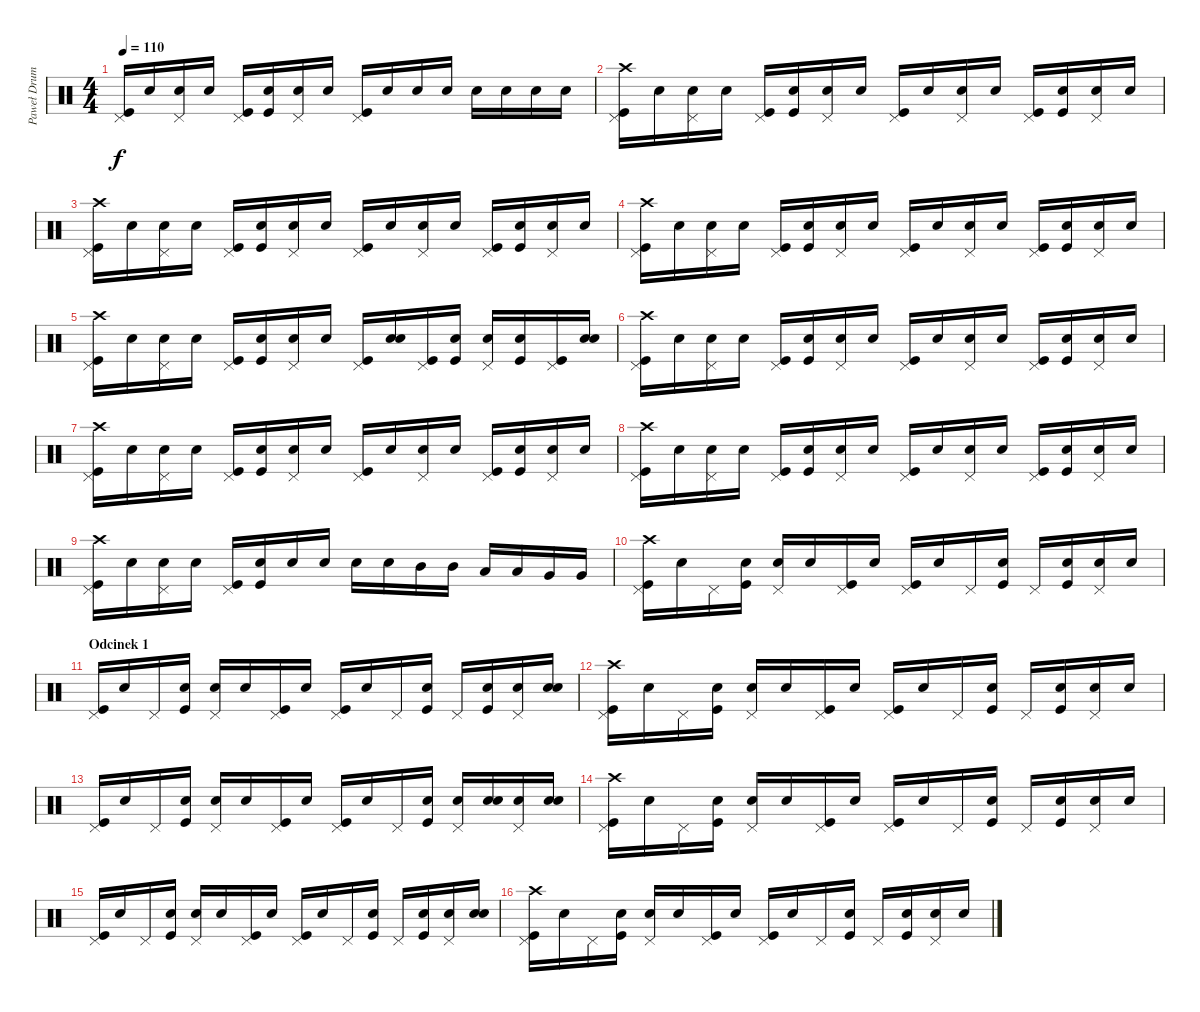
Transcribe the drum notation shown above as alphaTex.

\track ("Paweł Drums" "Paweł Drum") {instrument percussion}
\staff {score}
\articulation defaults
\ts (4 4)
\tempo 110
\clef neutral
\ks c
("Pedal Hi-Hat (hit)" "Kick (hit)").16{dy f} "Snare (hit)".16 ("Pedal Hi-Hat (hit)" "Snare (hit) 2").16 "Snare (hit)".16 ("Pedal Hi-Hat (hit)" "Kick (hit)").16 ("Snare (hit)" "Kick (hit)").16 ("Pedal Hi-Hat (hit)" "Snare (hit) 2").16 "Snare (hit)".16 ("Pedal Hi-Hat (hit)" "Kick (hit)").16 "Snare (hit) 2".16 "Snare (hit) 2".16 "Snare (hit) 2".16 "Snare (hit) 2".16 "Snare (hit) 2".16 "Snare (hit) 2".16 "Snare (hit) 2".16 |
("Pedal Hi-Hat (hit)" "Crash high (hit)" "Kick (hit)").16 "Snare (hit)".16 ("Pedal Hi-Hat (hit)" "Snare (hit) 2").16 "Snare (hit)".16 ("Pedal Hi-Hat (hit)" "Kick (hit)").16 ("Snare (hit)" "Kick (hit)").16 ("Pedal Hi-Hat (hit)" "Snare (hit) 2").16 "Snare (hit)".16 ("Pedal Hi-Hat (hit)" "Kick (hit)").16 "Snare (hit)".16 ("Pedal Hi-Hat (hit)" "Snare (hit) 2").16 "Snare (hit)".16 ("Pedal Hi-Hat (hit)" "Kick (hit)").16 ("Snare (hit)" "Kick (hit)").16 ("Pedal Hi-Hat (hit)" "Snare (hit) 2").16 "Snare (hit)".16 |
("Pedal Hi-Hat (hit)" "Crash high (hit)" "Kick (hit)").16 "Snare (hit)".16 ("Pedal Hi-Hat (hit)" "Snare (hit) 2").16 "Snare (hit)".16 ("Pedal Hi-Hat (hit)" "Kick (hit)").16 ("Snare (hit)" "Kick (hit)").16 ("Pedal Hi-Hat (hit)" "Snare (hit) 2").16 "Snare (hit)".16 ("Pedal Hi-Hat (hit)" "Kick (hit)").16 "Snare (hit)".16 ("Pedal Hi-Hat (hit)" "Snare (hit) 2").16 "Snare (hit)".16 ("Pedal Hi-Hat (hit)" "Kick (hit)").16 ("Snare (hit)" "Kick (hit)").16 ("Pedal Hi-Hat (hit)" "Snare (hit) 2").16 "Snare (hit)".16 |
("Pedal Hi-Hat (hit)" "Crash high (hit)" "Kick (hit)").16 "Snare (hit)".16 ("Pedal Hi-Hat (hit)" "Snare (hit) 2").16 "Snare (hit)".16 ("Pedal Hi-Hat (hit)" "Kick (hit)").16 ("Snare (hit)" "Kick (hit)").16 ("Pedal Hi-Hat (hit)" "Snare (hit) 2").16 "Snare (hit)".16 ("Pedal Hi-Hat (hit)" "Kick (hit)").16 "Snare (hit)".16 ("Pedal Hi-Hat (hit)" "Snare (hit) 2").16 "Snare (hit)".16 ("Pedal Hi-Hat (hit)" "Kick (hit)").16 ("Snare (hit)" "Kick (hit)").16 ("Pedal Hi-Hat (hit)" "Snare (hit) 2").16 "Snare (hit)".16 |
("Pedal Hi-Hat (hit)" "Crash high (hit)" "Kick (hit)").16 "Snare (hit)".16 ("Pedal Hi-Hat (hit)" "Snare (hit) 2").16 "Snare (hit)".16 ("Pedal Hi-Hat (hit)" "Kick (hit)").16 ("Snare (hit)" "Kick (hit)").16 ("Pedal Hi-Hat (hit)" "Snare (hit) 2").16 "Snare (hit)".16 ("Pedal Hi-Hat (hit)" "Kick (hit)").16 ("Snare (hit)" "Snare (hit) 2").16 ("Pedal Hi-Hat (hit)" "Kick (hit)").16 ("Snare (hit)" "Kick (hit)").16 ("Pedal Hi-Hat (hit)" "Snare (hit) 2").16 ("Snare (hit)" "Kick (hit)").16 ("Pedal Hi-Hat (hit)" "Kick (hit)").16 ("Snare (hit)" "Snare (hit) 2").16 |
("Pedal Hi-Hat (hit)" "Crash high (hit)" "Kick (hit)").16 "Snare (hit)".16 ("Pedal Hi-Hat (hit)" "Snare (hit) 2").16 "Snare (hit)".16 ("Pedal Hi-Hat (hit)" "Kick (hit)").16 ("Snare (hit)" "Kick (hit)").16 ("Pedal Hi-Hat (hit)" "Snare (hit) 2").16 "Snare (hit)".16 ("Pedal Hi-Hat (hit)" "Kick (hit)").16 "Snare (hit)".16 ("Pedal Hi-Hat (hit)" "Snare (hit) 2").16 "Snare (hit)".16 ("Pedal Hi-Hat (hit)" "Kick (hit)").16 ("Snare (hit)" "Kick (hit)").16 ("Pedal Hi-Hat (hit)" "Snare (hit) 2").16 "Snare (hit)".16 |
("Pedal Hi-Hat (hit)" "Crash high (hit)" "Kick (hit)").16 "Snare (hit)".16 ("Pedal Hi-Hat (hit)" "Snare (hit) 2").16 "Snare (hit)".16 ("Pedal Hi-Hat (hit)" "Kick (hit)").16 ("Snare (hit)" "Kick (hit)").16 ("Pedal Hi-Hat (hit)" "Snare (hit) 2").16 "Snare (hit)".16 ("Pedal Hi-Hat (hit)" "Kick (hit)").16 "Snare (hit)".16 ("Pedal Hi-Hat (hit)" "Snare (hit) 2").16 "Snare (hit)".16 ("Pedal Hi-Hat (hit)" "Kick (hit)").16 ("Snare (hit)" "Kick (hit)").16 ("Pedal Hi-Hat (hit)" "Snare (hit) 2").16 "Snare (hit)".16 |
("Pedal Hi-Hat (hit)" "Crash high (hit)" "Kick (hit)").16 "Snare (hit)".16 ("Pedal Hi-Hat (hit)" "Snare (hit) 2").16 "Snare (hit)".16 ("Pedal Hi-Hat (hit)" "Kick (hit)").16 ("Snare (hit)" "Kick (hit)").16 ("Pedal Hi-Hat (hit)" "Snare (hit) 2").16 "Snare (hit)".16 ("Pedal Hi-Hat (hit)" "Kick (hit)").16 "Snare (hit)".16 ("Pedal Hi-Hat (hit)" "Snare (hit) 2").16 "Snare (hit)".16 ("Pedal Hi-Hat (hit)" "Kick (hit)").16 ("Snare (hit)" "Kick (hit)").16 ("Pedal Hi-Hat (hit)" "Snare (hit) 2").16 "Snare (hit)".16 |
("Pedal Hi-Hat (hit)" "Crash high (hit)" "Kick (hit)").16 "Snare (hit)".16 ("Pedal Hi-Hat (hit)" "Snare (hit) 2").16 "Snare (hit)".16 ("Pedal Hi-Hat (hit)" "Kick (hit)").16 ("Snare (hit)" "Kick (hit)").16 "Snare (hit) 2".16 "Snare (hit) 2".16 "Snare (hit) 2".16 "Snare (hit) 2".16 "Mid Tom (hit)".16 "Mid Tom (hit)".16 "Low Tom (hit)".16 "Low Tom (hit)".16 "Very Low Tom (hit)".16 "Very Low Tom (hit)".16 |
("Pedal Hi-Hat (hit)" "Crash high (hit)" "Kick (hit)").16 "Snare (hit)".16 "Pedal Hi-Hat (hit)".16 ("Snare (hit)" "Kick (hit)").16 ("Pedal Hi-Hat (hit)" "Snare (hit) 2").16 "Snare (hit)".16 ("Pedal Hi-Hat (hit)" "Kick (hit)").16 "Snare (hit)".16 ("Pedal Hi-Hat (hit)" "Kick (hit)").16 "Snare (hit)".16 "Pedal Hi-Hat (hit)".16 ("Snare (hit)" "Kick (hit)").16 "Pedal Hi-Hat (hit)".16 ("Snare (hit)" "Kick (hit)").16 ("Pedal Hi-Hat (hit)" "Snare (hit) 2").16 "Snare (hit) 2".16 |
\section ("" "Odcinek 1")
("Pedal Hi-Hat (hit)" "Kick (hit)").16 "Snare (hit)".16 "Pedal Hi-Hat (hit)".16 ("Snare (hit)" "Kick (hit)").16 ("Pedal Hi-Hat (hit)" "Snare (hit) 2").16 "Snare (hit)".16 ("Pedal Hi-Hat (hit)" "Kick (hit)").16 "Snare (hit)".16 ("Pedal Hi-Hat (hit)" "Kick (hit)").16 "Snare (hit)".16 "Pedal Hi-Hat (hit)".16 ("Snare (hit)" "Kick (hit)").16 "Pedal Hi-Hat (hit)".16 ("Snare (hit)" "Kick (hit)").16 ("Pedal Hi-Hat (hit)" "Snare (hit) 2").16 ("Snare (hit)" "Snare (hit) 2").16 |
("Pedal Hi-Hat (hit)" "Crash high (hit)" "Kick (hit)").16 "Snare (hit)".16 "Pedal Hi-Hat (hit)".16 ("Snare (hit)" "Kick (hit)").16 ("Pedal Hi-Hat (hit)" "Snare (hit) 2").16 "Snare (hit)".16 ("Pedal Hi-Hat (hit)" "Kick (hit)").16 "Snare (hit)".16 ("Pedal Hi-Hat (hit)" "Kick (hit)").16 "Snare (hit)".16 "Pedal Hi-Hat (hit)".16 ("Snare (hit)" "Kick (hit)").16 "Pedal Hi-Hat (hit)".16 ("Snare (hit)" "Kick (hit)").16 ("Pedal Hi-Hat (hit)" "Snare (hit) 2").16 "Snare (hit) 2".16 |
("Pedal Hi-Hat (hit)" "Kick (hit)").16 "Snare (hit)".16 "Pedal Hi-Hat (hit)".16 ("Snare (hit)" "Kick (hit)").16 ("Pedal Hi-Hat (hit)" "Snare (hit) 2").16 "Snare (hit)".16 ("Pedal Hi-Hat (hit)" "Kick (hit)").16 "Snare (hit)".16 ("Pedal Hi-Hat (hit)" "Kick (hit)").16 "Snare (hit)".16 "Pedal Hi-Hat (hit)".16 ("Snare (hit)" "Kick (hit)").16 ("Pedal Hi-Hat (hit)" "Snare (hit) 2").16 ("Snare (hit)" "Snare (hit) 2").16 ("Pedal Hi-Hat (hit)" "Snare (hit) 2").16 ("Snare (hit)" "Snare (hit) 2").16 |
("Pedal Hi-Hat (hit)" "Crash high (hit)" "Kick (hit)").16 "Snare (hit)".16 "Pedal Hi-Hat (hit)".16 ("Snare (hit)" "Kick (hit)").16 ("Pedal Hi-Hat (hit)" "Snare (hit) 2").16 "Snare (hit)".16 ("Pedal Hi-Hat (hit)" "Kick (hit)").16 "Snare (hit)".16 ("Pedal Hi-Hat (hit)" "Kick (hit)").16 "Snare (hit)".16 "Pedal Hi-Hat (hit)".16 ("Snare (hit)" "Kick (hit)").16 "Pedal Hi-Hat (hit)".16 ("Snare (hit)" "Kick (hit)").16 ("Pedal Hi-Hat (hit)" "Snare (hit) 2").16 "Snare (hit) 2".16 |
("Pedal Hi-Hat (hit)" "Kick (hit)").16 "Snare (hit)".16 "Pedal Hi-Hat (hit)".16 ("Snare (hit)" "Kick (hit)").16 ("Pedal Hi-Hat (hit)" "Snare (hit) 2").16 "Snare (hit)".16 ("Pedal Hi-Hat (hit)" "Kick (hit)").16 "Snare (hit)".16 ("Pedal Hi-Hat (hit)" "Kick (hit)").16 "Snare (hit)".16 "Pedal Hi-Hat (hit)".16 ("Snare (hit)" "Kick (hit)").16 "Pedal Hi-Hat (hit)".16 ("Snare (hit)" "Kick (hit)").16 ("Pedal Hi-Hat (hit)" "Snare (hit) 2").16 ("Snare (hit)" "Snare (hit) 2").16 |
("Pedal Hi-Hat (hit)" "Crash high (hit)" "Kick (hit)").16 "Snare (hit)".16 "Pedal Hi-Hat (hit)".16 ("Snare (hit)" "Kick (hit)").16 ("Pedal Hi-Hat (hit)" "Snare (hit) 2").16 "Snare (hit)".16 ("Pedal Hi-Hat (hit)" "Kick (hit)").16 "Snare (hit)".16 ("Pedal Hi-Hat (hit)" "Kick (hit)").16 "Snare (hit)".16 "Pedal Hi-Hat (hit)".16 ("Snare (hit)" "Kick (hit)").16 "Pedal Hi-Hat (hit)".16 ("Snare (hit)" "Kick (hit)").16 ("Pedal Hi-Hat (hit)" "Snare (hit) 2").16 "Snare (hit) 2".16
